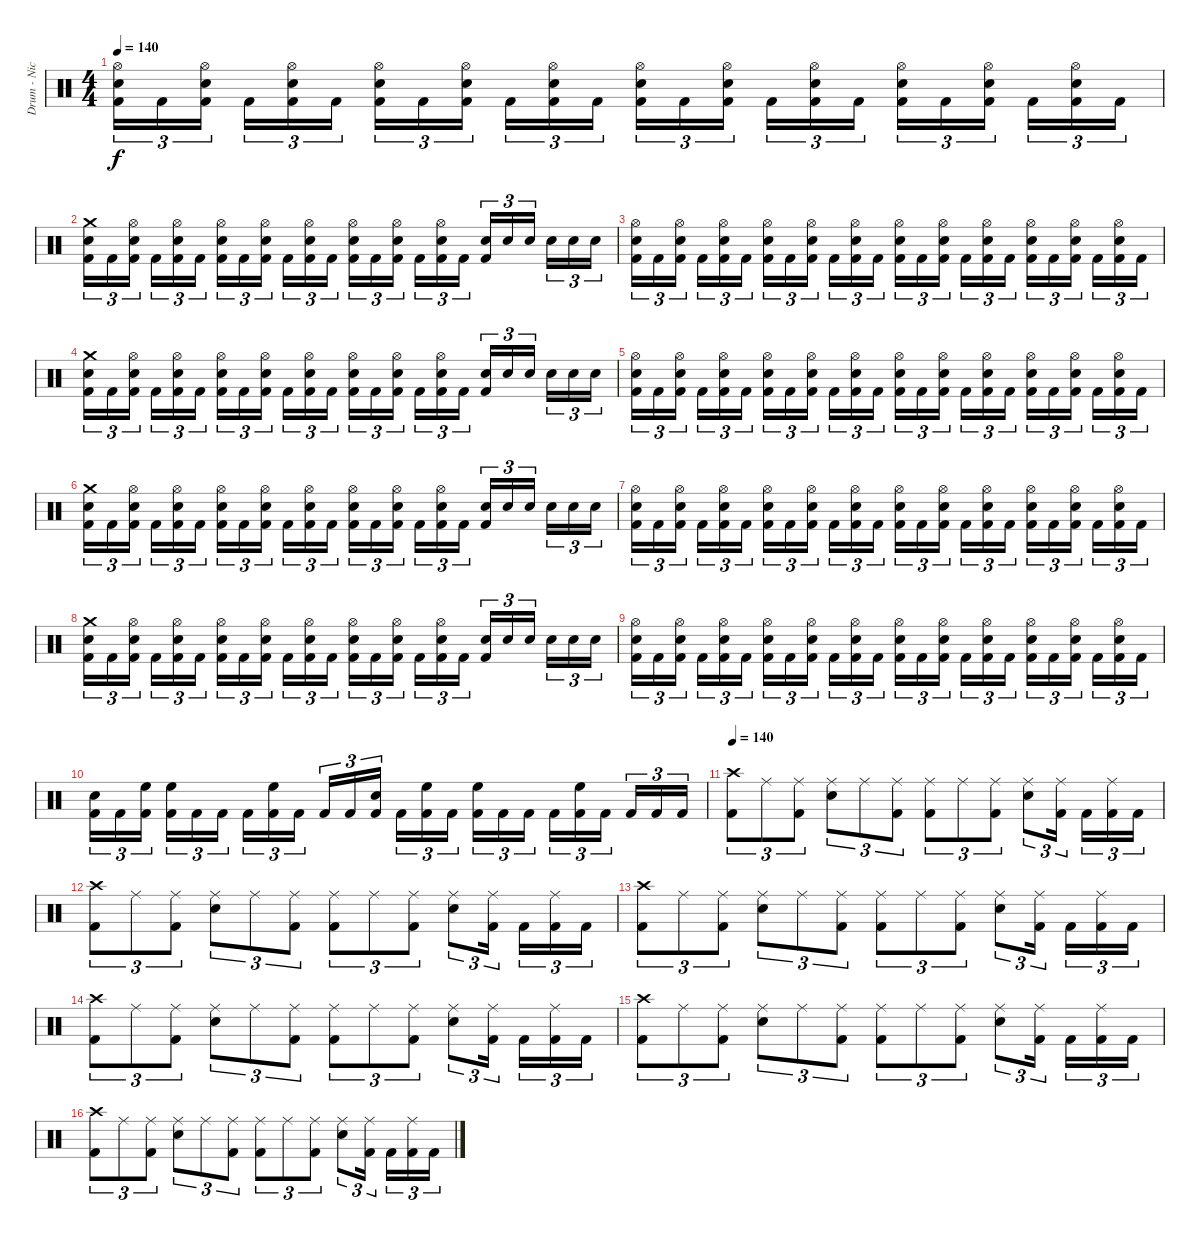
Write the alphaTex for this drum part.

\track ("Drum - Nicholas" "Drum - Nic") {instrument percussion}
\staff {score}
\articulation defaults
\ts (4 4)
\tempo 140
\clef neutral
\ks c
("Hi-Hat (open)" "Snare (hit) 2" "Kick (hit) 2").16{tu (3 2) dy f} "Kick (hit) 2".16{tu (3 2)} ("Hi-Hat (open)" "Snare (hit) 2" "Kick (hit) 2").16{tu (3 2) beam splitsecondary} "Kick (hit) 2".16{tu (3 2)} ("Hi-Hat (open)" "Snare (hit) 2" "Kick (hit) 2").16{tu (3 2)} "Kick (hit) 2".16{tu (3 2)} ("Hi-Hat (open)" "Snare (hit) 2" "Kick (hit) 2").16{tu (3 2)} "Kick (hit) 2".16{tu (3 2)} ("Hi-Hat (open)" "Snare (hit) 2" "Kick (hit) 2").16{tu (3 2) beam splitsecondary} "Kick (hit) 2".16{tu (3 2)} ("Hi-Hat (open)" "Snare (hit) 2" "Kick (hit) 2").16{tu (3 2)} "Kick (hit) 2".16{tu (3 2)} ("Hi-Hat (open)" "Snare (hit) 2" "Kick (hit) 2").16{tu (3 2)} "Kick (hit) 2".16{tu (3 2)} ("Hi-Hat (open)" "Snare (hit) 2" "Kick (hit) 2").16{tu (3 2) beam splitsecondary} "Kick (hit) 2".16{tu (3 2)} ("Hi-Hat (open)" "Snare (hit) 2" "Kick (hit) 2").16{tu (3 2)} "Kick (hit) 2".16{tu (3 2)} ("Hi-Hat (open)" "Snare (hit) 2" "Kick (hit) 2").16{tu (3 2)} "Kick (hit) 2".16{tu (3 2)} ("Hi-Hat (open)" "Snare (hit) 2" "Kick (hit) 2").16{tu (3 2) beam splitsecondary} "Kick (hit) 2".16{tu (3 2)} ("Hi-Hat (open)" "Snare (hit) 2" "Kick (hit) 2").16{tu (3 2)} "Kick (hit) 2".16{tu (3 2)} |
("Crash medium (hit)" "Snare (hit) 2" "Kick (hit) 2").16{tu (3 2)} "Kick (hit) 2".16{tu (3 2)} ("Hi-Hat (open)" "Snare (hit) 2" "Kick (hit) 2").16{tu (3 2) beam splitsecondary} "Kick (hit) 2".16{tu (3 2)} ("Hi-Hat (open)" "Snare (hit) 2" "Kick (hit) 2").16{tu (3 2)} "Kick (hit) 2".16{tu (3 2)} ("Hi-Hat (open)" "Snare (hit) 2" "Kick (hit) 2").16{tu (3 2)} "Kick (hit) 2".16{tu (3 2)} ("Hi-Hat (open)" "Snare (hit) 2" "Kick (hit) 2").16{tu (3 2) beam splitsecondary} "Kick (hit) 2".16{tu (3 2)} ("Hi-Hat (open)" "Snare (hit) 2" "Kick (hit) 2").16{tu (3 2)} "Kick (hit) 2".16{tu (3 2)} ("Hi-Hat (open)" "Snare (hit) 2" "Kick (hit) 2").16{tu (3 2)} "Kick (hit) 2".16{tu (3 2)} ("Hi-Hat (open)" "Snare (hit) 2" "Kick (hit) 2").16{tu (3 2) beam splitsecondary} "Kick (hit) 2".16{tu (3 2)} ("Hi-Hat (open)" "Snare (hit) 2" "Kick (hit) 2").16{tu (3 2)} "Kick (hit) 2".16{tu (3 2)} ("Snare (hit) 2" "Kick (hit) 2").16{tu (3 2)} "Snare (hit) 2".16{tu (3 2)} "Snare (hit) 2".16{tu (3 2) beam splitsecondary} "Snare (hit) 2".16{tu (3 2)} "Snare (hit) 2".16{tu (3 2)} "Snare (hit) 2".16{tu (3 2)} |
("Hi-Hat (open)" "Snare (hit) 2" "Kick (hit) 2").16{tu (3 2)} "Kick (hit) 2".16{tu (3 2)} ("Hi-Hat (open)" "Snare (hit) 2" "Kick (hit) 2").16{tu (3 2) beam splitsecondary} "Kick (hit) 2".16{tu (3 2)} ("Hi-Hat (open)" "Snare (hit) 2" "Kick (hit) 2").16{tu (3 2)} "Kick (hit) 2".16{tu (3 2)} ("Hi-Hat (open)" "Snare (hit) 2" "Kick (hit) 2").16{tu (3 2)} "Kick (hit) 2".16{tu (3 2)} ("Hi-Hat (open)" "Snare (hit) 2" "Kick (hit) 2").16{tu (3 2) beam splitsecondary} "Kick (hit) 2".16{tu (3 2)} ("Hi-Hat (open)" "Snare (hit) 2" "Kick (hit) 2").16{tu (3 2)} "Kick (hit) 2".16{tu (3 2)} ("Hi-Hat (open)" "Snare (hit) 2" "Kick (hit) 2").16{tu (3 2)} "Kick (hit) 2".16{tu (3 2)} ("Hi-Hat (open)" "Snare (hit) 2" "Kick (hit) 2").16{tu (3 2) beam splitsecondary} "Kick (hit) 2".16{tu (3 2)} ("Hi-Hat (open)" "Snare (hit) 2" "Kick (hit) 2").16{tu (3 2)} "Kick (hit) 2".16{tu (3 2)} ("Hi-Hat (open)" "Snare (hit) 2" "Kick (hit) 2").16{tu (3 2)} "Kick (hit) 2".16{tu (3 2)} ("Hi-Hat (open)" "Snare (hit) 2" "Kick (hit) 2").16{tu (3 2) beam splitsecondary} "Kick (hit) 2".16{tu (3 2)} ("Hi-Hat (open)" "Snare (hit) 2" "Kick (hit) 2").16{tu (3 2)} "Kick (hit) 2".16{tu (3 2)} |
("Crash medium (hit)" "Snare (hit) 2" "Kick (hit) 2").16{tu (3 2)} "Kick (hit) 2".16{tu (3 2)} ("Hi-Hat (open)" "Snare (hit) 2" "Kick (hit) 2").16{tu (3 2) beam splitsecondary} "Kick (hit) 2".16{tu (3 2)} ("Hi-Hat (open)" "Snare (hit) 2" "Kick (hit) 2").16{tu (3 2)} "Kick (hit) 2".16{tu (3 2)} ("Hi-Hat (open)" "Snare (hit) 2" "Kick (hit) 2").16{tu (3 2)} "Kick (hit) 2".16{tu (3 2)} ("Hi-Hat (open)" "Snare (hit) 2" "Kick (hit) 2").16{tu (3 2) beam splitsecondary} "Kick (hit) 2".16{tu (3 2)} ("Hi-Hat (open)" "Snare (hit) 2" "Kick (hit) 2").16{tu (3 2)} "Kick (hit) 2".16{tu (3 2)} ("Hi-Hat (open)" "Snare (hit) 2" "Kick (hit) 2").16{tu (3 2)} "Kick (hit) 2".16{tu (3 2)} ("Hi-Hat (open)" "Snare (hit) 2" "Kick (hit) 2").16{tu (3 2) beam splitsecondary} "Kick (hit) 2".16{tu (3 2)} ("Hi-Hat (open)" "Snare (hit) 2" "Kick (hit) 2").16{tu (3 2)} "Kick (hit) 2".16{tu (3 2)} ("Snare (hit) 2" "Kick (hit) 2").16{tu (3 2)} "Snare (hit) 2".16{tu (3 2)} "Snare (hit) 2".16{tu (3 2) beam splitsecondary} "Snare (hit) 2".16{tu (3 2)} "Snare (hit) 2".16{tu (3 2)} "Snare (hit) 2".16{tu (3 2)} |
("Hi-Hat (open)" "Snare (hit) 2" "Kick (hit) 2").16{tu (3 2)} "Kick (hit) 2".16{tu (3 2)} ("Hi-Hat (open)" "Snare (hit) 2" "Kick (hit) 2").16{tu (3 2) beam splitsecondary} "Kick (hit) 2".16{tu (3 2)} ("Hi-Hat (open)" "Snare (hit) 2" "Kick (hit) 2").16{tu (3 2)} "Kick (hit) 2".16{tu (3 2)} ("Hi-Hat (open)" "Snare (hit) 2" "Kick (hit) 2").16{tu (3 2)} "Kick (hit) 2".16{tu (3 2)} ("Hi-Hat (open)" "Snare (hit) 2" "Kick (hit) 2").16{tu (3 2) beam splitsecondary} "Kick (hit) 2".16{tu (3 2)} ("Hi-Hat (open)" "Snare (hit) 2" "Kick (hit) 2").16{tu (3 2)} "Kick (hit) 2".16{tu (3 2)} ("Hi-Hat (open)" "Snare (hit) 2" "Kick (hit) 2").16{tu (3 2)} "Kick (hit) 2".16{tu (3 2)} ("Hi-Hat (open)" "Snare (hit) 2" "Kick (hit) 2").16{tu (3 2) beam splitsecondary} "Kick (hit) 2".16{tu (3 2)} ("Hi-Hat (open)" "Snare (hit) 2" "Kick (hit) 2").16{tu (3 2)} "Kick (hit) 2".16{tu (3 2)} ("Hi-Hat (open)" "Snare (hit) 2" "Kick (hit) 2").16{tu (3 2)} "Kick (hit) 2".16{tu (3 2)} ("Hi-Hat (open)" "Snare (hit) 2" "Kick (hit) 2").16{tu (3 2) beam splitsecondary} "Kick (hit) 2".16{tu (3 2)} ("Hi-Hat (open)" "Snare (hit) 2" "Kick (hit) 2").16{tu (3 2)} "Kick (hit) 2".16{tu (3 2)} |
("Crash medium (hit)" "Snare (hit) 2" "Kick (hit) 2").16{tu (3 2)} "Kick (hit) 2".16{tu (3 2)} ("Hi-Hat (open)" "Snare (hit) 2" "Kick (hit) 2").16{tu (3 2) beam splitsecondary} "Kick (hit) 2".16{tu (3 2)} ("Hi-Hat (open)" "Snare (hit) 2" "Kick (hit) 2").16{tu (3 2)} "Kick (hit) 2".16{tu (3 2)} ("Hi-Hat (open)" "Snare (hit) 2" "Kick (hit) 2").16{tu (3 2)} "Kick (hit) 2".16{tu (3 2)} ("Hi-Hat (open)" "Snare (hit) 2" "Kick (hit) 2").16{tu (3 2) beam splitsecondary} "Kick (hit) 2".16{tu (3 2)} ("Hi-Hat (open)" "Snare (hit) 2" "Kick (hit) 2").16{tu (3 2)} "Kick (hit) 2".16{tu (3 2)} ("Hi-Hat (open)" "Snare (hit) 2" "Kick (hit) 2").16{tu (3 2)} "Kick (hit) 2".16{tu (3 2)} ("Hi-Hat (open)" "Snare (hit) 2" "Kick (hit) 2").16{tu (3 2) beam splitsecondary} "Kick (hit) 2".16{tu (3 2)} ("Hi-Hat (open)" "Snare (hit) 2" "Kick (hit) 2").16{tu (3 2)} "Kick (hit) 2".16{tu (3 2)} ("Snare (hit) 2" "Kick (hit) 2").16{tu (3 2)} "Snare (hit) 2".16{tu (3 2)} "Snare (hit) 2".16{tu (3 2) beam splitsecondary} "Snare (hit) 2".16{tu (3 2)} "Snare (hit) 2".16{tu (3 2)} "Snare (hit) 2".16{tu (3 2)} |
("Hi-Hat (open)" "Snare (hit) 2" "Kick (hit) 2").16{tu (3 2)} "Kick (hit) 2".16{tu (3 2)} ("Hi-Hat (open)" "Snare (hit) 2" "Kick (hit) 2").16{tu (3 2) beam splitsecondary} "Kick (hit) 2".16{tu (3 2)} ("Hi-Hat (open)" "Snare (hit) 2" "Kick (hit) 2").16{tu (3 2)} "Kick (hit) 2".16{tu (3 2)} ("Hi-Hat (open)" "Snare (hit) 2" "Kick (hit) 2").16{tu (3 2)} "Kick (hit) 2".16{tu (3 2)} ("Hi-Hat (open)" "Snare (hit) 2" "Kick (hit) 2").16{tu (3 2) beam splitsecondary} "Kick (hit) 2".16{tu (3 2)} ("Hi-Hat (open)" "Snare (hit) 2" "Kick (hit) 2").16{tu (3 2)} "Kick (hit) 2".16{tu (3 2)} ("Hi-Hat (open)" "Snare (hit) 2" "Kick (hit) 2").16{tu (3 2)} "Kick (hit) 2".16{tu (3 2)} ("Hi-Hat (open)" "Snare (hit) 2" "Kick (hit) 2").16{tu (3 2) beam splitsecondary} "Kick (hit) 2".16{tu (3 2)} ("Hi-Hat (open)" "Snare (hit) 2" "Kick (hit) 2").16{tu (3 2)} "Kick (hit) 2".16{tu (3 2)} ("Hi-Hat (open)" "Snare (hit) 2" "Kick (hit) 2").16{tu (3 2)} "Kick (hit) 2".16{tu (3 2)} ("Hi-Hat (open)" "Snare (hit) 2" "Kick (hit) 2").16{tu (3 2) beam splitsecondary} "Kick (hit) 2".16{tu (3 2)} ("Hi-Hat (open)" "Snare (hit) 2" "Kick (hit) 2").16{tu (3 2)} "Kick (hit) 2".16{tu (3 2)} |
("Crash medium (hit)" "Snare (hit) 2" "Kick (hit) 2").16{tu (3 2)} "Kick (hit) 2".16{tu (3 2)} ("Hi-Hat (open)" "Snare (hit) 2" "Kick (hit) 2").16{tu (3 2) beam splitsecondary} "Kick (hit) 2".16{tu (3 2)} ("Hi-Hat (open)" "Snare (hit) 2" "Kick (hit) 2").16{tu (3 2)} "Kick (hit) 2".16{tu (3 2)} ("Hi-Hat (open)" "Snare (hit) 2" "Kick (hit) 2").16{tu (3 2)} "Kick (hit) 2".16{tu (3 2)} ("Hi-Hat (open)" "Snare (hit) 2" "Kick (hit) 2").16{tu (3 2) beam splitsecondary} "Kick (hit) 2".16{tu (3 2)} ("Hi-Hat (open)" "Snare (hit) 2" "Kick (hit) 2").16{tu (3 2)} "Kick (hit) 2".16{tu (3 2)} ("Hi-Hat (open)" "Snare (hit) 2" "Kick (hit) 2").16{tu (3 2)} "Kick (hit) 2".16{tu (3 2)} ("Hi-Hat (open)" "Snare (hit) 2" "Kick (hit) 2").16{tu (3 2) beam splitsecondary} "Kick (hit) 2".16{tu (3 2)} ("Hi-Hat (open)" "Snare (hit) 2" "Kick (hit) 2").16{tu (3 2)} "Kick (hit) 2".16{tu (3 2)} ("Snare (hit) 2" "Kick (hit) 2").16{tu (3 2)} "Snare (hit) 2".16{tu (3 2)} "Snare (hit) 2".16{tu (3 2) beam splitsecondary} "Snare (hit) 2".16{tu (3 2)} "Snare (hit) 2".16{tu (3 2)} "Snare (hit) 2".16{tu (3 2)} |
("Hi-Hat (open)" "Snare (hit) 2" "Kick (hit) 2").16{tu (3 2)} "Kick (hit) 2".16{tu (3 2)} ("Hi-Hat (open)" "Snare (hit) 2" "Kick (hit) 2").16{tu (3 2) beam splitsecondary} "Kick (hit) 2".16{tu (3 2)} ("Hi-Hat (open)" "Snare (hit) 2" "Kick (hit) 2").16{tu (3 2)} "Kick (hit) 2".16{tu (3 2)} ("Hi-Hat (open)" "Snare (hit) 2" "Kick (hit) 2").16{tu (3 2)} "Kick (hit) 2".16{tu (3 2)} ("Hi-Hat (open)" "Snare (hit) 2" "Kick (hit) 2").16{tu (3 2) beam splitsecondary} "Kick (hit) 2".16{tu (3 2)} ("Hi-Hat (open)" "Snare (hit) 2" "Kick (hit) 2").16{tu (3 2)} "Kick (hit) 2".16{tu (3 2)} ("Hi-Hat (open)" "Snare (hit) 2" "Kick (hit) 2").16{tu (3 2)} "Kick (hit) 2".16{tu (3 2)} ("Hi-Hat (open)" "Snare (hit) 2" "Kick (hit) 2").16{tu (3 2) beam splitsecondary} "Kick (hit) 2".16{tu (3 2)} ("Hi-Hat (open)" "Snare (hit) 2" "Kick (hit) 2").16{tu (3 2)} "Kick (hit) 2".16{tu (3 2)} ("Hi-Hat (open)" "Snare (hit) 2" "Kick (hit) 2").16{tu (3 2)} "Kick (hit) 2".16{tu (3 2)} ("Hi-Hat (open)" "Snare (hit) 2" "Kick (hit) 2").16{tu (3 2) beam splitsecondary} "Kick (hit) 2".16{tu (3 2)} ("Hi-Hat (open)" "Snare (hit) 2" "Kick (hit) 2").16{tu (3 2)} "Kick (hit) 2".16{tu (3 2)} |
("Snare (hit) 2" "Kick (hit) 2").16{tu (3 2)} "Kick (hit) 2".16{tu (3 2)} ("High Floor Tom (hit)" "Kick (hit) 2").16{tu (3 2) beam splitsecondary} ("High Floor Tom (hit)" "Kick (hit) 2").16{tu (3 2)} "Kick (hit) 2".16{tu (3 2)} "Kick (hit) 2".16{tu (3 2)} "Kick (hit) 2".16{tu (3 2)} ("High Floor Tom (hit)" "Kick (hit) 2").16{tu (3 2)} "Kick (hit) 2".16{tu (3 2) beam splitsecondary} "Kick (hit) 2".16{tu (3 2)} "Kick (hit) 2".16{tu (3 2)} ("Snare (hit) 2" "Kick (hit) 2").16{tu (3 2)} "Kick (hit) 2".16{tu (3 2)} ("High Floor Tom (hit)" "Kick (hit) 2").16{tu (3 2)} "Kick (hit) 2".16{tu (3 2) beam splitsecondary} ("High Floor Tom (hit)" "Kick (hit) 2").16{tu (3 2)} "Kick (hit) 2".16{tu (3 2)} "Kick (hit) 2".16{tu (3 2)} "Kick (hit) 2".16{tu (3 2)} ("High Floor Tom (hit)" "Kick (hit) 2").16{tu (3 2)} "Kick (hit) 2".16{tu (3 2) beam splitsecondary} "Kick (hit) 2".16{tu (3 2)} "Kick (hit) 2".16{tu (3 2)} "Kick (hit) 2".16{tu (3 2)} |
\tempo 140
("Crash high (hit)" "Kick (hit) 2").8{tu (3 2)} "Ride (middle)".8{tu (3 2)} ("Ride (middle)" "Kick (hit) 2").8{tu (3 2)} ("Ride (middle)" "Snare (hit) 2").8{tu (3 2)} "Ride (middle)".8{tu (3 2)} ("Ride (middle)" "Kick (hit) 2").8{tu (3 2)} ("Ride (middle)" "Kick (hit) 2").8{tu (3 2)} "Ride (middle)".8{tu (3 2)} ("Ride (middle)" "Kick (hit) 2").8{tu (3 2)} ("Ride (middle)" "Snare (hit) 2").8{tu (3 2)} ("Ride (middle)" "Kick (hit) 2").16{tu (3 2) beam splitsecondary} "Kick (hit) 2".16{tu (3 2)} ("Ride (middle)" "Kick (hit) 2").16{tu (3 2)} "Kick (hit) 2".16{tu (3 2)} |
("Crash high (hit)" "Kick (hit) 2").8{tu (3 2)} "Ride (middle)".8{tu (3 2)} ("Ride (middle)" "Kick (hit) 2").8{tu (3 2)} ("Ride (middle)" "Snare (hit) 2").8{tu (3 2)} "Ride (middle)".8{tu (3 2)} ("Ride (middle)" "Kick (hit) 2").8{tu (3 2)} ("Ride (middle)" "Kick (hit) 2").8{tu (3 2)} "Ride (middle)".8{tu (3 2)} ("Ride (middle)" "Kick (hit) 2").8{tu (3 2)} ("Ride (middle)" "Snare (hit) 2").8{tu (3 2)} ("Ride (middle)" "Kick (hit) 2").16{tu (3 2) beam splitsecondary} "Kick (hit) 2".16{tu (3 2)} ("Ride (middle)" "Kick (hit) 2").16{tu (3 2)} "Kick (hit) 2".16{tu (3 2)} |
("Crash high (hit)" "Kick (hit) 2").8{tu (3 2)} "Ride (middle)".8{tu (3 2)} ("Ride (middle)" "Kick (hit) 2").8{tu (3 2)} ("Ride (middle)" "Snare (hit) 2").8{tu (3 2)} "Ride (middle)".8{tu (3 2)} ("Ride (middle)" "Kick (hit) 2").8{tu (3 2)} ("Ride (middle)" "Kick (hit) 2").8{tu (3 2)} "Ride (middle)".8{tu (3 2)} ("Ride (middle)" "Kick (hit) 2").8{tu (3 2)} ("Ride (middle)" "Snare (hit) 2").8{tu (3 2)} ("Ride (middle)" "Kick (hit) 2").16{tu (3 2) beam splitsecondary} "Kick (hit) 2".16{tu (3 2)} ("Ride (middle)" "Kick (hit) 2").16{tu (3 2)} "Kick (hit) 2".16{tu (3 2)} |
("Crash high (hit)" "Kick (hit) 2").8{tu (3 2)} "Ride (middle)".8{tu (3 2)} ("Ride (middle)" "Kick (hit) 2").8{tu (3 2)} ("Ride (middle)" "Snare (hit) 2").8{tu (3 2)} "Ride (middle)".8{tu (3 2)} ("Ride (middle)" "Kick (hit) 2").8{tu (3 2)} ("Ride (middle)" "Kick (hit) 2").8{tu (3 2)} "Ride (middle)".8{tu (3 2)} ("Ride (middle)" "Kick (hit) 2").8{tu (3 2)} ("Ride (middle)" "Snare (hit) 2").8{tu (3 2)} ("Ride (middle)" "Kick (hit) 2").16{tu (3 2) beam splitsecondary} "Kick (hit) 2".16{tu (3 2)} ("Ride (middle)" "Kick (hit) 2").16{tu (3 2)} "Kick (hit) 2".16{tu (3 2)} |
("Crash high (hit)" "Kick (hit) 2").8{tu (3 2)} "Ride (middle)".8{tu (3 2)} ("Ride (middle)" "Kick (hit) 2").8{tu (3 2)} ("Ride (middle)" "Snare (hit) 2").8{tu (3 2)} "Ride (middle)".8{tu (3 2)} ("Ride (middle)" "Kick (hit) 2").8{tu (3 2)} ("Ride (middle)" "Kick (hit) 2").8{tu (3 2)} "Ride (middle)".8{tu (3 2)} ("Ride (middle)" "Kick (hit) 2").8{tu (3 2)} ("Ride (middle)" "Snare (hit) 2").8{tu (3 2)} ("Ride (middle)" "Kick (hit) 2").16{tu (3 2) beam splitsecondary} "Kick (hit) 2".16{tu (3 2)} ("Ride (middle)" "Kick (hit) 2").16{tu (3 2)} "Kick (hit) 2".16{tu (3 2)} |
("Crash high (hit)" "Kick (hit) 2").8{tu (3 2)} "Ride (middle)".8{tu (3 2)} ("Ride (middle)" "Kick (hit) 2").8{tu (3 2)} ("Ride (middle)" "Snare (hit) 2").8{tu (3 2)} "Ride (middle)".8{tu (3 2)} ("Ride (middle)" "Kick (hit) 2").8{tu (3 2)} ("Ride (middle)" "Kick (hit) 2").8{tu (3 2)} "Ride (middle)".8{tu (3 2)} ("Ride (middle)" "Kick (hit) 2").8{tu (3 2)} ("Ride (middle)" "Snare (hit) 2").8{tu (3 2)} ("Ride (middle)" "Kick (hit) 2").16{tu (3 2) beam splitsecondary} "Kick (hit) 2".16{tu (3 2)} ("Ride (middle)" "Kick (hit) 2").16{tu (3 2)} "Kick (hit) 2".16{tu (3 2)}
